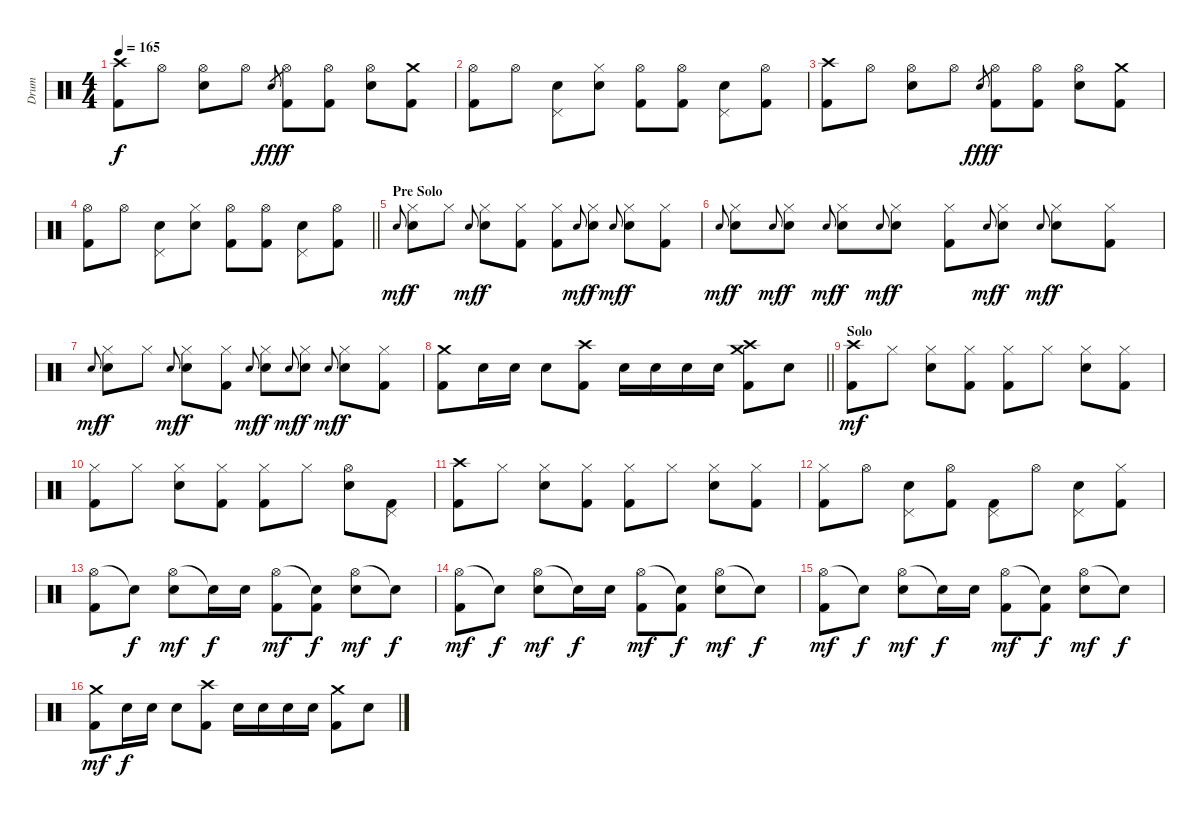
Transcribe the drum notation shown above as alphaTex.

\track ("Drum" "Drum") {instrument percussion}
\staff {score}
\articulation defaults
\ts (4 4)
\tempo 165
\clef neutral
\ks c
("Crash high (hit)" "Kick (hit) 2").8{dy f} "Hi-Hat (open)".8 ("Hi-Hat (open)" "Electric Snare (hit)").8 "Hi-Hat (open)".8 "Electric Snare (hit)".8{gr dy fff} ("Hi-Hat (open)" "Kick (hit) 2").8{dy f} ("Hi-Hat (open)" "Kick (hit) 2").8 ("Hi-Hat (open)" "Electric Snare (hit)").8 ("Crash medium (hit)" "Kick (hit) 2").8 |
("Hi-Hat (open)" "Kick (hit) 2").8 "Hi-Hat (open)".8 ("Pedal Hi-Hat (hit)" "Electric Snare (hit)").8 ("Hi-Hat (closed)" "Electric Snare (hit)").8 ("Hi-Hat (open)" "Kick (hit) 2").8 ("Hi-Hat (open)" "Kick (hit) 2").8 ("Pedal Hi-Hat (hit)" "Electric Snare (hit)").8 ("Hi-Hat (open)" "Kick (hit) 2").8 |
("Crash high (hit)" "Kick (hit) 2").8 "Hi-Hat (open)".8 ("Hi-Hat (open)" "Electric Snare (hit)").8 "Hi-Hat (open)".8 "Electric Snare (hit)".8{gr dy fff} ("Hi-Hat (open)" "Kick (hit) 2").8{dy f} ("Hi-Hat (open)" "Kick (hit) 2").8 ("Hi-Hat (open)" "Electric Snare (hit)").8 ("Crash medium (hit)" "Kick (hit) 2").8 |
\barLineRight lightlight
("Hi-Hat (open)" "Kick (hit) 2").8 "Hi-Hat (open)".8 ("Pedal Hi-Hat (hit)" "Electric Snare (hit)").8 ("Hi-Hat (closed)" "Electric Snare (hit)").8 ("Hi-Hat (open)" "Kick (hit) 2").8 ("Hi-Hat (open)" "Kick (hit) 2").8 ("Pedal Hi-Hat (hit)" "Electric Snare (hit)").8 ("Hi-Hat (open)" "Kick (hit) 2").8 |
\section ("" "Pre Solo")
"Electric Snare (hit)".8{gr onbeat dy mf} ("Hi-Hat (closed)" "Electric Snare (hit)").8{dy f} "Hi-Hat (closed)".8 "Electric Snare (hit)".8{gr onbeat dy mf} ("Hi-Hat (closed)" "Electric Snare (hit)").8{dy f} ("Hi-Hat (closed)" "Kick (hit) 2").8 ("Hi-Hat (closed)" "Kick (hit) 2").8 "Electric Snare (hit)".8{gr onbeat dy mf} ("Hi-Hat (closed)" "Electric Snare (hit)").8{dy f} "Electric Snare (hit)".8{gr onbeat dy mf} ("Hi-Hat (closed)" "Electric Snare (hit)").8{dy f} ("Hi-Hat (closed)" "Kick (hit) 2").8 |
"Electric Snare (hit)".8{gr onbeat dy mf} ("Hi-Hat (closed)" "Electric Snare (hit)").8{dy f} "Electric Snare (hit)".8{gr onbeat dy mf} ("Hi-Hat (closed)" "Electric Snare (hit)").8{dy f} "Electric Snare (hit)".8{gr onbeat dy mf} ("Hi-Hat (closed)" "Electric Snare (hit)").8{dy f} "Electric Snare (hit)".8{gr onbeat dy mf} ("Hi-Hat (closed)" "Electric Snare (hit)").8{dy f} ("Hi-Hat (closed)" "Kick (hit) 2").8 "Electric Snare (hit)".8{gr onbeat dy mf} ("Hi-Hat (closed)" "Electric Snare (hit)").8{dy f} "Electric Snare (hit)".8{gr onbeat dy mf} ("Hi-Hat (closed)" "Electric Snare (hit)").8{dy f} ("Hi-Hat (closed)" "Kick (hit) 2").8 |
"Electric Snare (hit)".8{gr onbeat dy mf} ("Hi-Hat (closed)" "Electric Snare (hit)").8{dy f} "Hi-Hat (closed)".8 "Electric Snare (hit)".8{gr onbeat dy mf} ("Hi-Hat (closed)" "Electric Snare (hit)").8{dy f} ("Hi-Hat (closed)" "Kick (hit) 2").8 "Electric Snare (hit)".8{gr onbeat dy mf} ("Hi-Hat (closed)" "Electric Snare (hit)").8{dy f} "Electric Snare (hit)".8{gr onbeat dy mf} ("Hi-Hat (closed)" "Electric Snare (hit)").8{dy f} "Electric Snare (hit)".8{gr onbeat dy mf} ("Hi-Hat (closed)" "Electric Snare (hit)").8{dy f} ("Hi-Hat (closed)" "Kick (hit) 2").8 |
\barLineRight lightlight
("Crash medium (hit)" "Kick (hit) 2").8 "Electric Snare (hit)".16 "Electric Snare (hit)".16 "Electric Snare (hit)".8 ("Crash high (hit)" "Kick (hit) 2").8 "Electric Snare (hit)".16 "Electric Snare (hit)".16 "Electric Snare (hit)".16 "Electric Snare (hit)".16 ("Crash high (hit)" "Crash medium (hit)" "Kick (hit) 2").8 "Electric Snare (hit)".8 |
\section ("" "Solo")
("Crash high (hit)" "Kick (hit) 2").8{dy mf} "Hi-Hat (closed)".8 ("Hi-Hat (closed)" "Electric Snare (hit)").8 ("Hi-Hat (closed)" "Kick (hit) 2").8 ("Hi-Hat (closed)" "Kick (hit) 2").8 "Hi-Hat (closed)".8 ("Hi-Hat (closed)" "Electric Snare (hit)").8 ("Hi-Hat (closed)" "Kick (hit) 2").8 |
("Hi-Hat (closed)" "Kick (hit) 2").8 "Hi-Hat (closed)".8 ("Hi-Hat (closed)" "Electric Snare (hit)").8 ("Hi-Hat (closed)" "Kick (hit) 2").8 ("Hi-Hat (closed)" "Kick (hit) 2").8 "Hi-Hat (closed)".8 ("Hi-Hat (open)" "Electric Snare (hit)").8 ("Pedal Hi-Hat (hit)" "Kick (hit) 2").8 |
("Crash high (hit)" "Kick (hit) 2").8 "Hi-Hat (closed)".8 ("Hi-Hat (closed)" "Electric Snare (hit)").8 ("Hi-Hat (closed)" "Kick (hit) 2").8 ("Hi-Hat (closed)" "Kick (hit) 2").8 "Hi-Hat (closed)".8 ("Hi-Hat (closed)" "Electric Snare (hit)").8 ("Hi-Hat (closed)" "Kick (hit) 2").8 |
("Hi-Hat (closed)" "Kick (hit) 2").8 "Hi-Hat (open)".8 ("Pedal Hi-Hat (hit)" "Electric Snare (hit)").8 ("Hi-Hat (open)" "Kick (hit) 2").8 ("Pedal Hi-Hat (hit)" "Kick (hit) 2").8 "Hi-Hat (open)".8 ("Pedal Hi-Hat (hit)" "Electric Snare (hit)").8 ("Hi-Hat (closed)" "Kick (hit) 2").8 |
("Hi-Hat (open)" "Kick (hit) 2").8 "Snare (hit)"{t}.8{dy f} ("Hi-Hat (open)" "Electric Snare (hit)").8{dy mf} "Snare (hit)"{t}.16{dy f} "Electric Snare (hit)".16 ("Hi-Hat (open)" "Kick (hit) 2").8{dy mf} ("Snare (hit)"{t} "Kick (hit) 2").8{dy f} ("Hi-Hat (open)" "Electric Snare (hit)").8{dy mf} "Snare (hit)"{t}.8{dy f} |
("Hi-Hat (open)" "Kick (hit) 2").8{dy mf} "Snare (hit)"{t}.8{dy f} ("Hi-Hat (open)" "Electric Snare (hit)").8{dy mf} "Snare (hit)"{t}.16{dy f} "Electric Snare (hit)".16 ("Hi-Hat (open)" "Kick (hit) 2").8{dy mf} ("Snare (hit)"{t} "Kick (hit) 2").8{dy f} ("Hi-Hat (open)" "Electric Snare (hit)").8{dy mf} "Snare (hit)"{t}.8{dy f} |
("Hi-Hat (open)" "Kick (hit) 2").8{dy mf} "Snare (hit)"{t}.8{dy f} ("Hi-Hat (open)" "Electric Snare (hit)").8{dy mf} "Snare (hit)"{t}.16{dy f} "Electric Snare (hit)".16 ("Hi-Hat (open)" "Kick (hit) 2").8{dy mf} ("Snare (hit)"{t} "Kick (hit) 2").8{dy f} ("Hi-Hat (open)" "Electric Snare (hit)").8{dy mf} "Snare (hit)"{t}.8{dy f} |
("Crash medium (hit)" "Kick (hit) 2").8{dy mf} "Electric Snare (hit)".16{dy f} "Electric Snare (hit)".16 "Electric Snare (hit)".8 ("Crash high (hit)" "Kick (hit) 2").8 "Electric Snare (hit)".16 "Electric Snare (hit)".16 "Electric Snare (hit)".16 "Electric Snare (hit)".16 ("Crash medium (hit)" "Kick (hit) 2").8 "Electric Snare (hit)".8
